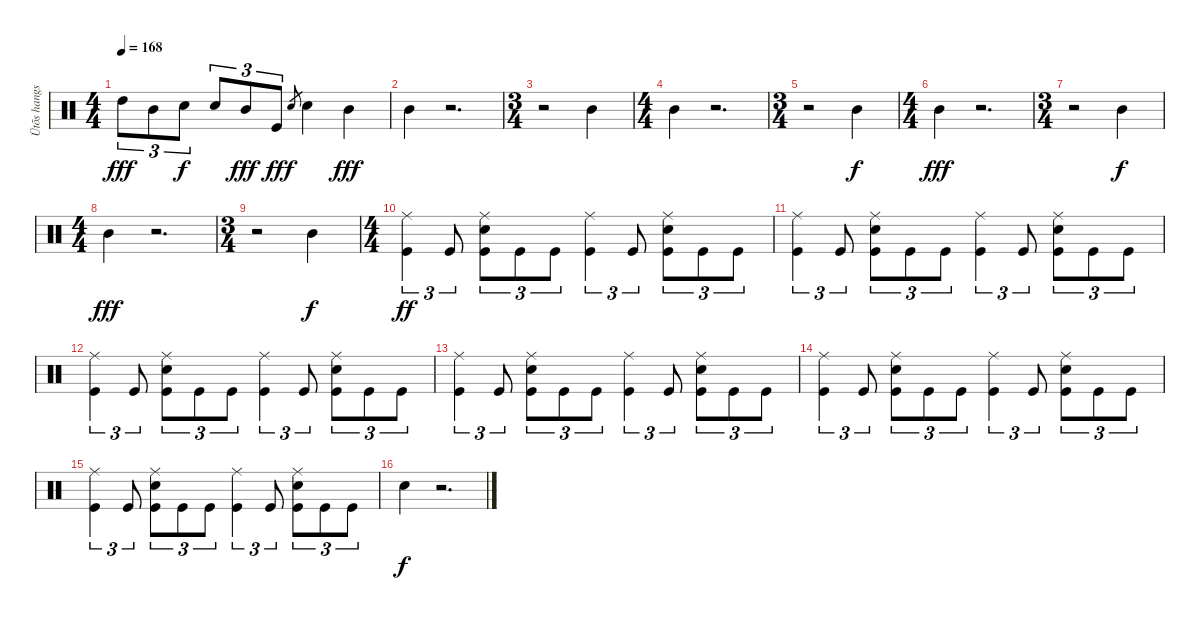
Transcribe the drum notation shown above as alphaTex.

\track ("Ütõs hangszer" "Ütõs hangs") {instrument percussion}
\staff {score}
\articulation defaults
\ts (4 4)
\tempo 168
\clef neutral
\ks c "High Tom (hit)".8{tu (3 2) dy fff} "Mid Tom (hit)".8{tu (3 2)} "Electric Snare (hit)".8{tu (3 2) dy f} "Electric Snare (hit)".8{tu (3 2)} "Mid Tom (hit)".8{tu (3 2) dy fff} "Kick (hit)".8{tu (3 2) dy ff} "Electric Snare (hit)".8{gr dy f} "Electric Snare (hit)".4 "Mid Tom (hit)".4{dy fff}
|
"Mid Tom (hit)".4 r.2{d} |
\ts (3 4)
r.2 "Mid Tom (hit)".4 |
\ts (4 4)
"Mid Tom (hit)".4 r.2{d} |
\ts (3 4)
r.2 "Mid Tom (hit)".4{dy f} |
\ts (4 4)
"Mid Tom (hit)".4{dy fff} r.2{d} |
\ts (3 4)
r.2 "Mid Tom (hit)".4{dy f} |
\ts (4 4)
"Mid Tom (hit)".4{dy fff} r.2{d} |
\ts (3 4)
r.2 "Mid Tom (hit)".4{dy f} |
\ts (4 4)
("Ride (middle)" "Kick (hit)").4{tu (3 2) dy ff} "Kick (hit)".8{tu (3 2)} ("Ride (middle)" "Electric Snare (hit)" "Kick (hit)").8{tu (3 2)} "Kick (hit)".8{tu (3 2)} "Kick (hit)".8{tu (3 2)} ("Ride (middle)" "Kick (hit)").4{tu (3 2)} "Kick (hit)".8{tu (3 2)} ("Ride (middle)" "Electric Snare (hit)" "Kick (hit)").8{tu (3 2)} "Kick (hit)".8{tu (3 2)} "Kick (hit)".8{tu (3 2)} |
("Ride (middle)" "Kick (hit)").4{tu (3 2)} "Kick (hit)".8{tu (3 2)} ("Ride (middle)" "Electric Snare (hit)" "Kick (hit)").8{tu (3 2)} "Kick (hit)".8{tu (3 2)} "Kick (hit)".8{tu (3 2)} ("Ride (middle)" "Kick (hit)").4{tu (3 2)} "Kick (hit)".8{tu (3 2)} ("Ride (middle)" "Electric Snare (hit)" "Kick (hit)").8{tu (3 2)} "Kick (hit)".8{tu (3 2)} "Kick (hit)".8{tu (3 2)} |
("Ride (middle)" "Kick (hit)").4{tu (3 2)} "Kick (hit)".8{tu (3 2)} ("Ride (middle)" "Electric Snare (hit)" "Kick (hit)").8{tu (3 2)} "Kick (hit)".8{tu (3 2)} "Kick (hit)".8{tu (3 2)} ("Ride (middle)" "Kick (hit)").4{tu (3 2)} "Kick (hit)".8{tu (3 2)} ("Ride (middle)" "Electric Snare (hit)" "Kick (hit)").8{tu (3 2)} "Kick (hit)".8{tu (3 2)} "Kick (hit)".8{tu (3 2)} |
("Ride (middle)" "Kick (hit)").4{tu (3 2)} "Kick (hit)".8{tu (3 2)} ("Ride (middle)" "Electric Snare (hit)" "Kick (hit)").8{tu (3 2)} "Kick (hit)".8{tu (3 2)} "Kick (hit)".8{tu (3 2)} ("Ride (middle)" "Kick (hit)").4{tu (3 2)} "Kick (hit)".8{tu (3 2)} ("Ride (middle)" "Electric Snare (hit)" "Kick (hit)").8{tu (3 2)} "Kick (hit)".8{tu (3 2)} "Kick (hit)".8{tu (3 2)} |
("Ride (middle)" "Kick (hit)").4{tu (3 2)} "Kick (hit)".8{tu (3 2)} ("Ride (middle)" "Electric Snare (hit)" "Kick (hit)").8{tu (3 2)} "Kick (hit)".8{tu (3 2)} "Kick (hit)".8{tu (3 2)} ("Ride (middle)" "Kick (hit)").4{tu (3 2)} "Kick (hit)".8{tu (3 2)} ("Ride (middle)" "Electric Snare (hit)" "Kick (hit)").8{tu (3 2)} "Kick (hit)".8{tu (3 2)} "Kick (hit)".8{tu (3 2)} |
("Ride (middle)" "Kick (hit)").4{tu (3 2)} "Kick (hit)".8{tu (3 2)} ("Ride (middle)" "Electric Snare (hit)" "Kick (hit)").8{tu (3 2)} "Kick (hit)".8{tu (3 2)} "Kick (hit)".8{tu (3 2)} ("Ride (middle)" "Kick (hit)").4{tu (3 2)} "Kick (hit)".8{tu (3 2)} ("Ride (middle)" "Electric Snare (hit)" "Kick (hit)").8{tu (3 2)} "Kick (hit)".8{tu (3 2)} "Kick (hit)".8{tu (3 2)} |
"Electric Snare (hit)".4{dy f} r.2{d}
